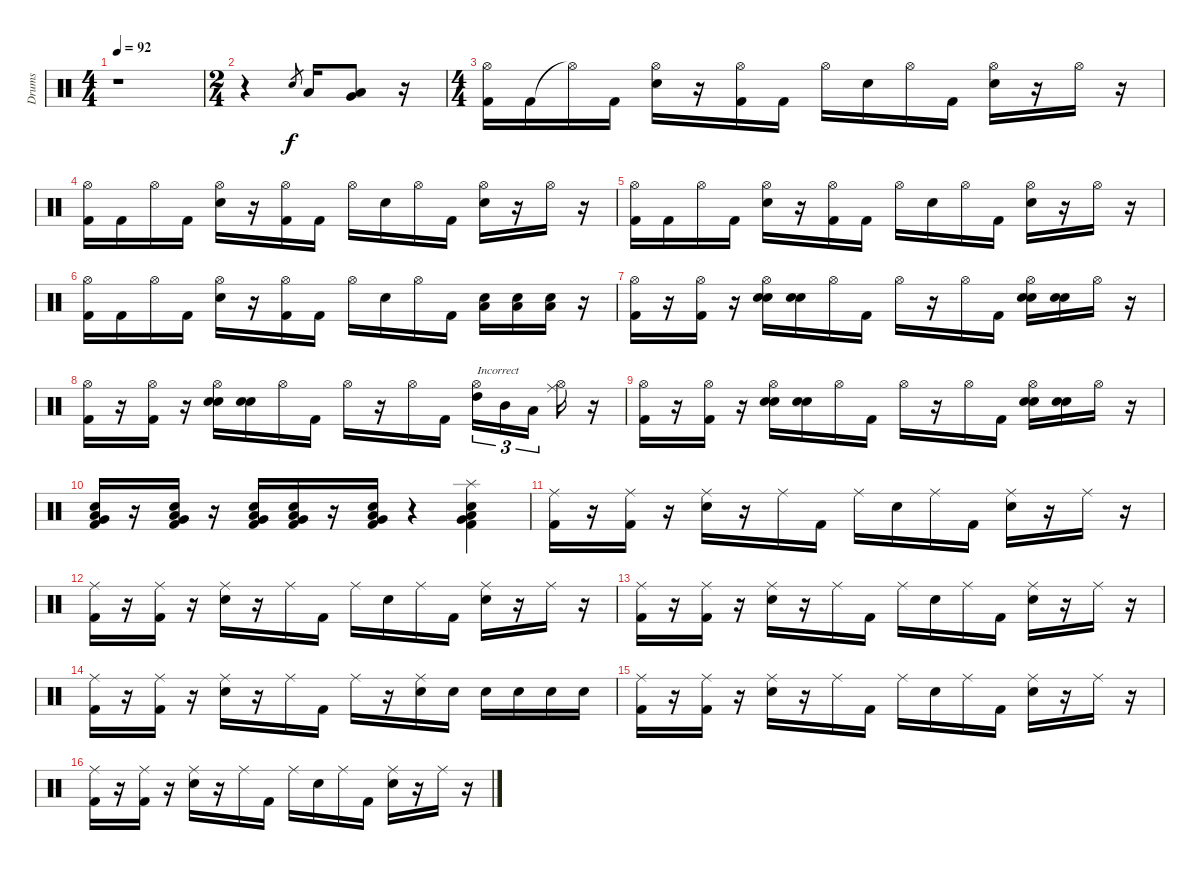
\track ("Drums" "Drums") {instrument percussion}
\staff {score}
\articulation defaults
\ts (4 4)
\tempo 92
\clef neutral
\ks c
r.1{dy f} |
\ts (2 4)
r.4 "Snare (hit) 2".8{gr} "Low Tom (hit)".16 ("Very Low Tom (hit)" "Low Tom (hit)").8 r.16 |
\ts (4 4)
("Hi-Hat (open)" "Kick (hit) 2").16 "Kick (hit) 2".16 "Hi-Hat (open)"{t}.16 "Kick (hit) 2".16 ("Hi-Hat (open)" "Electric Snare (hit)").16 r.16 ("Hi-Hat (open)" "Kick (hit) 2").16 "Kick (hit) 2".16 "Hi-Hat (open)".16 "Electric Snare (hit)".16 "Hi-Hat (open)".16 "Kick (hit) 2".16 ("Hi-Hat (open)" "Electric Snare (hit)").16 r.16 "Hi-Hat (open)".16 r.16 |
("Hi-Hat (open)" "Kick (hit) 2").16 "Kick (hit) 2".16 "Hi-Hat (open)".16 "Kick (hit) 2".16 ("Hi-Hat (open)" "Electric Snare (hit)").16 r.16 ("Hi-Hat (open)" "Kick (hit) 2").16 "Kick (hit) 2".16 "Hi-Hat (open)".16 "Electric Snare (hit)".16 "Hi-Hat (open)".16 "Kick (hit) 2".16 ("Hi-Hat (open)" "Electric Snare (hit)").16 r.16 "Hi-Hat (open)".16 r.16 |
("Hi-Hat (open)" "Kick (hit) 2").16 "Kick (hit) 2".16 "Hi-Hat (open)".16 "Kick (hit) 2".16 ("Hi-Hat (open)" "Electric Snare (hit)").16 r.16 ("Hi-Hat (open)" "Kick (hit) 2").16 "Kick (hit) 2".16 "Hi-Hat (open)".16 "Electric Snare (hit)".16 "Hi-Hat (open)".16 "Kick (hit) 2".16 ("Hi-Hat (open)" "Electric Snare (hit)").16 r.16 "Hi-Hat (open)".16 r.16 |
("Hi-Hat (open)" "Kick (hit) 2").16 "Kick (hit) 2".16 "Hi-Hat (open)".16 "Kick (hit) 2".16 ("Hi-Hat (open)" "Electric Snare (hit)").16 r.16 ("Hi-Hat (open)" "Kick (hit) 2").16 "Kick (hit) 2".16 "Hi-Hat (open)".16 "Electric Snare (hit)".16 "Hi-Hat (open)".16 "Kick (hit) 2".16 ("Electric Snare (hit)" "Low Tom (hit)").16 ("Electric Snare (hit)" "Low Tom (hit)").16 ("Electric Snare (hit)" "Low Tom (hit)").16 r.16 |
("Hi-Hat (open)" "Kick (hit) 2").16 r.16 ("Hi-Hat (open)" "Kick (hit) 2").16 r.16 ("Hi-Hat (open)" "Snare (hit) 2" "Electric Snare (hit)").16 ("Snare (hit) 2" "Electric Snare (hit)").16 "Hi-Hat (open)".16 "Kick (hit) 2".16 "Hi-Hat (open)".16 r.16 "Hi-Hat (open)".16 "Kick (hit) 2".16 ("Hi-Hat (open)" "Snare (hit) 2" "Electric Snare (hit)").16 ("Snare (hit) 2" "Electric Snare (hit)").16 "Hi-Hat (open)".16 r.16 |
("Hi-Hat (open)" "Kick (hit) 2").16 r.16 ("Hi-Hat (open)" "Kick (hit) 2").16 r.16 ("Hi-Hat (open)" "Snare (hit) 2" "Electric Snare (hit)").16 ("Snare (hit) 2" "Electric Snare (hit)").16 "Hi-Hat (open)".16 "Kick (hit) 2".16 "Hi-Hat (open)".16 r.16 "Hi-Hat (open)".16 "Kick (hit) 2".16 ("Hi-Hat (open)" "High Tom (hit)").16{tu (3 2) txt "Incorrect"} "Mid Tom (hit)".16{tu (3 2)} "Low Tom (hit)".16{tu (3 2)} ("Ride (middle)" "Hi-Hat (open)").16 r.16 |
("Hi-Hat (open)" "Kick (hit) 2").16 r.16 ("Hi-Hat (open)" "Kick (hit) 2").16 r.16 ("Hi-Hat (open)" "Snare (hit) 2" "Electric Snare (hit)").16 ("Snare (hit) 2" "Electric Snare (hit)").16 "Hi-Hat (open)".16 "Kick (hit) 2".16 "Hi-Hat (open)".16 r.16 "Hi-Hat (open)".16 "Kick (hit) 2".16 ("Hi-Hat (open)" "Snare (hit) 2" "Electric Snare (hit)").16 ("Snare (hit) 2" "Electric Snare (hit)").16 "Hi-Hat (open)".16 r.16 |
("Very Low Tom (hit)" "Snare (hit) 2" "Low Tom (hit)" "Kick (hit) 2").16 r.16 ("Very Low Tom (hit)" "Snare (hit) 2" "Low Tom (hit)" "Kick (hit) 2").16 r.16 ("Very Low Tom (hit)" "Snare (hit) 2" "Low Tom (hit)" "Kick (hit) 2").16 ("Very Low Tom (hit)" "Snare (hit) 2" "Low Tom (hit)" "Kick (hit) 2").16 r.16 ("Very Low Tom (hit)" "Snare (hit) 2" "Low Tom (hit)" "Kick (hit) 2").16 r.4 ("Splash (hit)" "Very Low Tom (hit)" "Snare (hit) 2" "Low Tom (hit)" "Kick (hit) 2").4 |
("Ride (middle)" "Kick (hit) 2").16 r.16 ("Ride (middle)" "Kick (hit) 2").16 r.16 ("Ride (middle)" "Electric Snare (hit)").16 r.16 "Ride (middle)".16 "Kick (hit) 2".16 "Ride (middle)".16 "Electric Snare (hit)".16 "Ride (middle)".16 "Kick (hit) 2".16 ("Ride (middle)" "Electric Snare (hit)").16 r.16 "Ride (middle)".16 r.16 |
("Ride (middle)" "Kick (hit) 2").16 r.16 ("Ride (middle)" "Kick (hit) 2").16 r.16 ("Ride (middle)" "Electric Snare (hit)").16 r.16 "Ride (middle)".16 "Kick (hit) 2".16 "Ride (middle)".16 "Electric Snare (hit)".16 "Ride (middle)".16 "Kick (hit) 2".16 ("Ride (middle)" "Electric Snare (hit)").16 r.16 "Ride (middle)".16 r.16 |
("Ride (middle)" "Kick (hit) 2").16 r.16 ("Ride (middle)" "Kick (hit) 2").16 r.16 ("Ride (middle)" "Electric Snare (hit)").16 r.16 "Ride (middle)".16 "Kick (hit) 2".16 "Ride (middle)".16 "Electric Snare (hit)".16 "Ride (middle)".16 "Kick (hit) 2".16 ("Ride (middle)" "Electric Snare (hit)").16 r.16 "Ride (middle)".16 r.16 |
("Ride (middle)" "Kick (hit) 2").16 r.16 ("Ride (middle)" "Kick (hit) 2").16 r.16 ("Ride (middle)" "Electric Snare (hit)").16 r.16 "Ride (middle)".16 "Kick (hit) 2".16 "Ride (middle)".16 r.16 ("Ride (middle)" "Electric Snare (hit)").16 "Electric Snare (hit)".16 "Electric Snare (hit)".16 "Electric Snare (hit)".16 "Electric Snare (hit)".16 "Electric Snare (hit)".16 |
("Ride (middle)" "Kick (hit) 2").16 r.16 ("Ride (middle)" "Kick (hit) 2").16 r.16 ("Ride (middle)" "Electric Snare (hit)").16 r.16 "Ride (middle)".16 "Kick (hit) 2".16 "Ride (middle)".16 "Electric Snare (hit)".16 "Ride (middle)".16 "Kick (hit) 2".16 ("Ride (middle)" "Electric Snare (hit)").16 r.16 "Ride (middle)".16 r.16 |
("Ride (middle)" "Kick (hit) 2").16 r.16 ("Ride (middle)" "Kick (hit) 2").16 r.16 ("Ride (middle)" "Electric Snare (hit)").16 r.16 "Ride (middle)".16 "Kick (hit) 2".16 "Ride (middle)".16 "Electric Snare (hit)".16 "Ride (middle)".16 "Kick (hit) 2".16 ("Ride (middle)" "Electric Snare (hit)").16 r.16 "Ride (middle)".16 r.16
